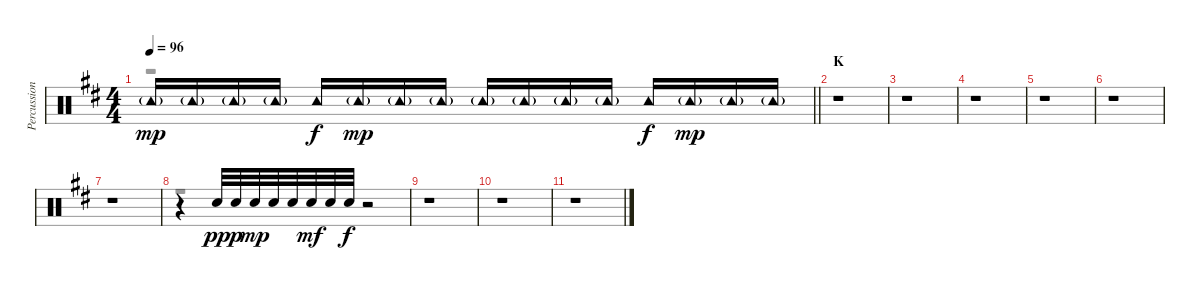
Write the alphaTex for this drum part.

\track ("Percussion" "Percussion") {instrument percussion}
\staff {score}
\articulation defaults
\voice
\ts (4 4)
\tempo 96
\clef neutral
\barLineRight lightlight
\ks d "Tambourine (hit)"{g}.16{dy mp} "Tambourine (hit)"{g}.16 "Tambourine (hit)"{g}.16 "Tambourine (hit)"{g}.16 "Tambourine (hit)".16{dy f} "Tambourine (hit)"{g}.16{dy mp} "Tambourine (hit)"{g}.16 "Tambourine (hit)"{g}.16 "Tambourine (hit)"{g}.16 "Tambourine (hit)"{g}.16 "Tambourine (hit)"{g}.16 "Tambourine (hit)"{g}.16 "Tambourine (hit)".16{dy f} "Tambourine (hit)"{g}.16{dy mp} "Tambourine (hit)"{g}.16 "Tambourine (hit)"{g}.16
|
\section ("" "K")
r.1 |
r.1 |
r.1 |
r.1 |
r.1 |
r.1 |
r.4 "Snare (hit) 2".32{dy pp} "Snare (hit) 2".32{dy p} "Snare (hit) 2".32{dy mp} "Snare (hit) 2".32 "Snare (hit) 2".32 "Snare (hit) 2".32{dy mf} "Snare (hit) 2".32 "Snare (hit) 2".32{dy f} r.2 |
r.1 |
r.1 |
r.1
\voice
\clef neutral
\ottava regular
\simile none
\barLineRight lightlight
\ks d
r.1{dy fff} |
r.1 |
r.1 |
r.1 |
r.1 |
r.1 |
r.1 |
r.1 |
r.1 |
r.1 |
r.1
